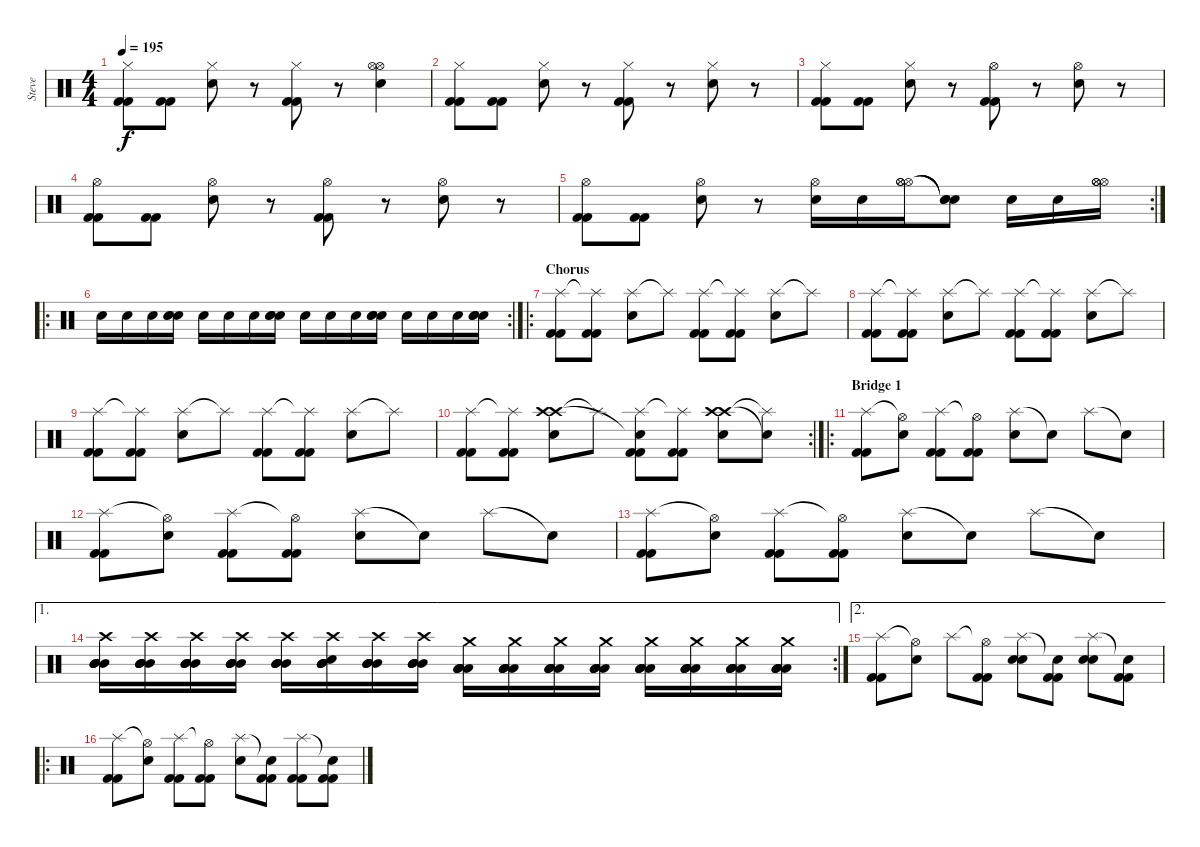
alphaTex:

\track ("Steve" "Steve") {instrument percussion}
\staff {score}
\articulation defaults
\ts (4 4)
\tempo 195
\clef neutral
\ks c
("Hi-Hat (closed)" "Kick (hit) 2" "Kick (hit) 2").8{dy f} ("Kick (hit) 2" "Kick (hit) 2").8 ("Hi-Hat (closed)" "Snare (hit) 2").8 r.8 ("Hi-Hat (closed)" "Kick (hit) 2" "Kick (hit) 2").8 r.8 ("Hi-Hat (open)" "Hi-Hat (open)" "Snare (hit) 2").4 |
("Hi-Hat (closed)" "Kick (hit) 2" "Kick (hit) 2").8 ("Kick (hit) 2" "Kick (hit) 2").8 ("Hi-Hat (closed)" "Snare (hit) 2").8 r.8 ("Hi-Hat (closed)" "Kick (hit) 2" "Kick (hit) 2").8 r.8 ("Hi-Hat (closed)" "Snare (hit) 2").8 r.8 |
("Hi-Hat (closed)" "Kick (hit) 2" "Kick (hit) 2").8 ("Kick (hit) 2" "Kick (hit) 2").8 ("Hi-Hat (closed)" "Snare (hit) 2").8 r.8 ("Hi-Hat (open)" "Kick (hit) 2" "Kick (hit) 2").8 r.8 ("Hi-Hat (open)" "Snare (hit) 2").8 r.8 |
("Hi-Hat (open)" "Kick (hit) 2" "Kick (hit) 2").8 ("Kick (hit) 2" "Kick (hit) 2").8 ("Hi-Hat (open)" "Snare (hit) 2").8 r.8 ("Hi-Hat (open)" "Kick (hit) 2" "Kick (hit) 2").8 r.8 ("Hi-Hat (open)" "Snare (hit) 2").8 r.8 |
\rc 2
("Hi-Hat (open)" "Kick (hit) 2" "Kick (hit) 2").8 ("Kick (hit) 2" "Kick (hit) 2").8 ("Hi-Hat (open)" "Snare (hit) 2").8 r.8 ("Hi-Hat (open)" "Snare (hit) 2").16 "Snare (hit) 2".16 ("Hi-Hat (open)" "Hi-Hat (open)" "Hi-Hat (open)").16 ("Snare (hit)"{t} "Snare (hit)"{t} "Snare (hit)"{t}).8 "Snare (hit) 2".16 "Snare (hit) 2".16 ("Hi-Hat (open)" "Hi-Hat (open)" "Hi-Hat (open)").16 |
\ro
\rc 2 "Snare (hit) 2".16 "Snare (hit) 2".16 "Snare (hit) 2".16
("Snare (hit) 2" "Snare (hit) 2" "Snare (hit) 2").16 "Snare (hit) 2".16 "Snare (hit) 2".16 "Snare (hit) 2".16 ("Snare (hit) 2" "Snare (hit) 2" "Snare (hit) 2").16 "Snare (hit) 2".16 "Snare (hit) 2".16 "Snare (hit) 2".16 ("Snare (hit) 2" "Snare (hit) 2" "Snare (hit) 2").16 "Snare (hit) 2".16 "Snare (hit) 2".16 "Snare (hit) 2".16 ("Snare (hit) 2" "Snare (hit) 2" "Snare (hit) 2").16 |
\ro
\section ("" "Chorus")
("Splash (hit)" "Kick (hit) 2" "Kick (hit) 2").8 ("Splash (hit)"{t} "Kick (hit) 2" "Kick (hit) 2").8 ("Splash (hit)" "Snare (hit) 2").8 "Splash (hit)"{t}.8 ("Splash (hit)" "Kick (hit) 2" "Kick (hit) 2").8 ("Splash (hit)"{t} "Kick (hit) 2" "Kick (hit) 2").8 ("Splash (hit)" "Snare (hit) 2").8 "Splash (hit)"{t}.8 |
("Splash (hit)" "Kick (hit) 2" "Kick (hit) 2").8 ("Splash (hit)"{t} "Kick (hit) 2" "Kick (hit) 2").8 ("Splash (hit)" "Snare (hit) 2").8 "Splash (hit)"{t}.8 ("Splash (hit)" "Kick (hit) 2" "Kick (hit) 2").8 ("Splash (hit)"{t} "Kick (hit) 2" "Kick (hit) 2").8 ("Splash (hit)" "Snare (hit) 2").8 "Splash (hit)"{t}.8 |
("Splash (hit)" "Kick (hit) 2" "Kick (hit) 2").8 ("Splash (hit)"{t} "Kick (hit) 2" "Kick (hit) 2").8 ("Splash (hit)" "Snare (hit) 2").8 "Splash (hit)"{t}.8 ("Splash (hit)" "Kick (hit) 2" "Kick (hit) 2").8 ("Splash (hit)"{t} "Kick (hit) 2" "Kick (hit) 2").8 ("Splash (hit)" "Snare (hit) 2").8 "Splash (hit)"{t}.8 |
\rc 2
("Splash (hit)" "Kick (hit) 2" "Kick (hit) 2").8 ("Splash (hit)"{t} "Kick (hit) 2" "Kick (hit) 2").8 ("Crash high (hit)" "Crash high (hit)" "Snare (hit) 2").8 "Splash (hit)"{t}.8 ("Splash (hit)" "Snare (hit)"{t} "Kick (hit) 2" "Kick (hit) 2").8 ("Splash (hit)"{t} "Kick (hit) 2" "Kick (hit) 2").8 ("Crash high (hit)" "Crash high (hit)" "Snare (hit) 2").8 ("Splash (hit)"{t} "Snare (hit)"{t}).8 |
\ro
\section ("" "Bridge 1")
("Splash (hit)" "Kick (hit) 2" "Kick (hit) 2").8 ("Hi-Hat (open)"{t} "Snare (hit) 2").8 ("Splash (hit)" "Kick (hit) 2" "Kick (hit) 2").8 ("Hi-Hat (open)"{t} "Kick (hit) 2" "Kick (hit) 2").8 ("Splash (hit)" "Snare (hit) 2").8 "Snare (hit)"{t}.8 "Splash (hit)".8 "Snare (hit)"{t}.8 |
("Splash (hit)" "Kick (hit) 2" "Kick (hit) 2").8 ("Hi-Hat (open)"{t} "Snare (hit) 2").8 ("Splash (hit)" "Kick (hit) 2" "Kick (hit) 2").8 ("Hi-Hat (open)"{t} "Kick (hit) 2" "Kick (hit) 2").8 ("Splash (hit)" "Snare (hit) 2").8 "Snare (hit)"{t}.8 "Splash (hit)".8 "Snare (hit)"{t}.8 |
("Splash (hit)" "Kick (hit) 2" "Kick (hit) 2").8 ("Hi-Hat (open)"{t} "Snare (hit) 2").8 ("Splash (hit)" "Kick (hit) 2" "Kick (hit) 2").8 ("Hi-Hat (open)"{t} "Kick (hit) 2" "Kick (hit) 2").8 ("Splash (hit)" "Snare (hit) 2").8 "Snare (hit)"{t}.8 "Splash (hit)".8 "Snare (hit)"{t}.8 |
\ae 1
\rc 2
("Crash high (hit)" "Mid Tom (hit)" "Mid Tom (hit)" "Mid Tom (hit)" "Mid Tom (hit)").16 ("Crash high (hit)" "Mid Tom (hit)" "Mid Tom (hit)" "Mid Tom (hit)" "Mid Tom (hit)").16 ("Crash high (hit)" "Mid Tom (hit)" "Mid Tom (hit)" "Mid Tom (hit)" "Mid Tom (hit)").16 ("Crash high (hit)" "Mid Tom (hit)" "Mid Tom (hit)" "Mid Tom (hit)" "Mid Tom (hit)").16 ("Crash high (hit)" "Mid Tom (hit)" "Mid Tom (hit)" "Mid Tom (hit)" "Mid Tom (hit)").16 ("Crash high (hit)" "Mid Tom (hit)" "Snare (hit)" "Mid Tom (hit)" "Mid Tom (hit)").16 ("Crash high (hit)" "Mid Tom (hit)" "Mid Tom (hit)" "Mid Tom (hit)" "Mid Tom (hit)").16 ("Crash high (hit)" "Mid Tom (hit)" "Mid Tom (hit)" "Mid Tom (hit)" "Mid Tom (hit)").16 ("Crash medium (hit)" "Low Tom (hit)" "Low Tom (hit)" "Low Tom (hit)" "Low Tom (hit)").16 ("Crash medium (hit)" "Low Tom (hit)" "Low Tom (hit)" "Low Tom (hit)" "Low Tom (hit)").16 ("Crash medium (hit)" "Low Tom (hit)" "Low Tom (hit)" "Low Tom (hit)" "Low Tom (hit)").16 ("Crash medium (hit)" "Low Tom (hit)" "Low Tom (hit)" "Low Tom (hit)" "Low Tom (hit)").16 ("Crash medium (hit)" "Low Tom (hit)" "Low Tom (hit)" "Low Tom (hit)" "Low Tom (hit)").16 ("Crash medium (hit)" "Low Tom (hit)" "Low Tom (hit)" "Low Tom (hit)" "Low Tom (hit)").16 ("Crash medium (hit)" "Low Tom (hit)" "Low Tom (hit)" "Low Tom (hit)" "Low Tom (hit)").16 ("Crash medium (hit)" "Low Tom (hit)" "Low Tom (hit)" "Low Tom (hit)" "Low Tom (hit)").16 |
\ae 2
("Splash (hit)" "Kick (hit) 2" "Kick (hit) 2").8 ("Hi-Hat (open)"{t} "Snare (hit) 2").8 "Splash (hit)".8 ("Hi-Hat (open)"{t} "Kick (hit) 2" "Kick (hit) 2").8 ("Splash (hit)" "Snare (hit) 2" "Snare (hit) 2").8 ("Snare (hit)"{t} "Kick (hit) 2" "Kick (hit) 2").8 ("Splash (hit)" "Snare (hit) 2" "Snare (hit) 2").8 ("Snare (hit)"{t} "Kick (hit) 2" "Kick (hit) 2").8 |
\ro
("Splash (hit)" "Kick (hit) 2" "Kick (hit) 2").8 ("Hi-Hat (open)"{t} "Snare (hit) 2").8 ("Splash (hit)" "Kick (hit) 2" "Kick (hit) 2").8 ("Hi-Hat (open)"{t} "Kick (hit) 2" "Kick (hit) 2").8 ("Splash (hit)" "Snare (hit) 2").8 ("Snare (hit)"{t} "Kick (hit) 2" "Kick (hit) 2").8 ("Splash (hit)" "Kick (hit) 2" "Kick (hit) 2").8 ("Snare (hit)"{t} "Kick (hit) 2" "Kick (hit) 2").8
